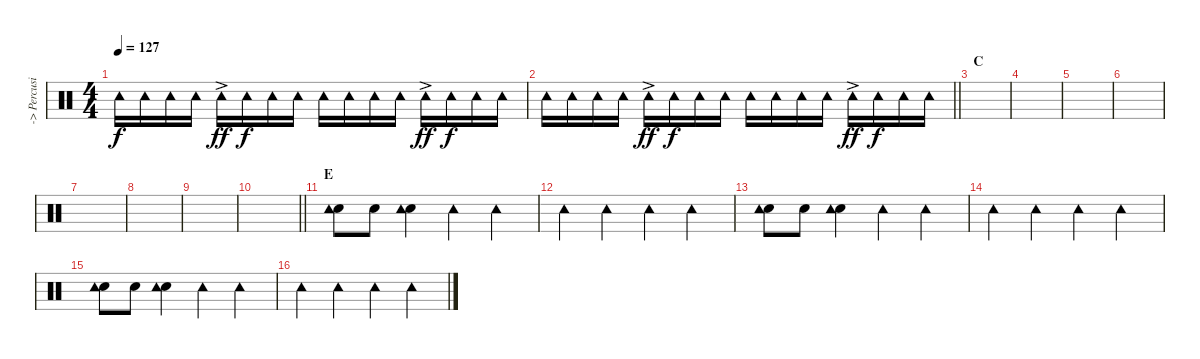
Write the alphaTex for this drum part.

\track ("-> Percusion" "-> Percusi") {instrument percussion}
\staff {score}
\articulation defaults
\ts (4 4)
\tempo 127
\clef neutral
\ks c "Tambourine (hit)".16{dy f} "Tambourine (hit)".16 "Tambourine (hit)".16 "Tambourine (hit)".16 "Tambourine (hit)"{ac}.16{dy ff} "Tambourine (hit)".16{dy f} "Tambourine (hit)".16 "Tambourine (hit)".16 "Tambourine (hit)".16 "Tambourine (hit)".16 "Tambourine (hit)".16 "Tambourine (hit)".16 "Tambourine (hit)"{ac}.16{dy ff} "Tambourine (hit)".16{dy f} "Tambourine (hit)".16 "Tambourine (hit)".16
|
\barLineRight lightlight "Tambourine (hit)".16 "Tambourine (hit)".16 "Tambourine (hit)".16 "Tambourine (hit)".16 "Tambourine (hit)"{ac}.16{dy ff} "Tambourine (hit)".16{dy f} "Tambourine (hit)".16 "Tambourine (hit)".16 "Tambourine (hit)".16 "Tambourine (hit)".16 "Tambourine (hit)".16 "Tambourine (hit)".16 "Tambourine (hit)"{ac}.16{dy ff} "Tambourine (hit)".16{dy f} "Tambourine (hit)".16 "Tambourine (hit)".16
|
\section ("" "C")
|
|
|
|
|
|
|
\barLineRight lightlight
|
\section ("" "E")
("Hand Clap (hit)" "Tambourine (hit)").8 "Hand Clap (hit)".8 ("Hand Clap (hit)" "Tambourine (hit)").4 "Tambourine (hit)".4 "Tambourine (hit)".4 |
"Tambourine (hit)".4 "Tambourine (hit)".4 "Tambourine (hit)".4 "Tambourine (hit)".4 |
("Hand Clap (hit)" "Tambourine (hit)").8 "Hand Clap (hit)".8 ("Hand Clap (hit)" "Tambourine (hit)").4 "Tambourine (hit)".4 "Tambourine (hit)".4 |
"Tambourine (hit)".4 "Tambourine (hit)".4 "Tambourine (hit)".4 "Tambourine (hit)".4 |
("Hand Clap (hit)" "Tambourine (hit)").8 "Hand Clap (hit)".8 ("Hand Clap (hit)" "Tambourine (hit)").4 "Tambourine (hit)".4 "Tambourine (hit)".4 |
"Tambourine (hit)".4 "Tambourine (hit)".4 "Tambourine (hit)".4 "Tambourine (hit)".4
